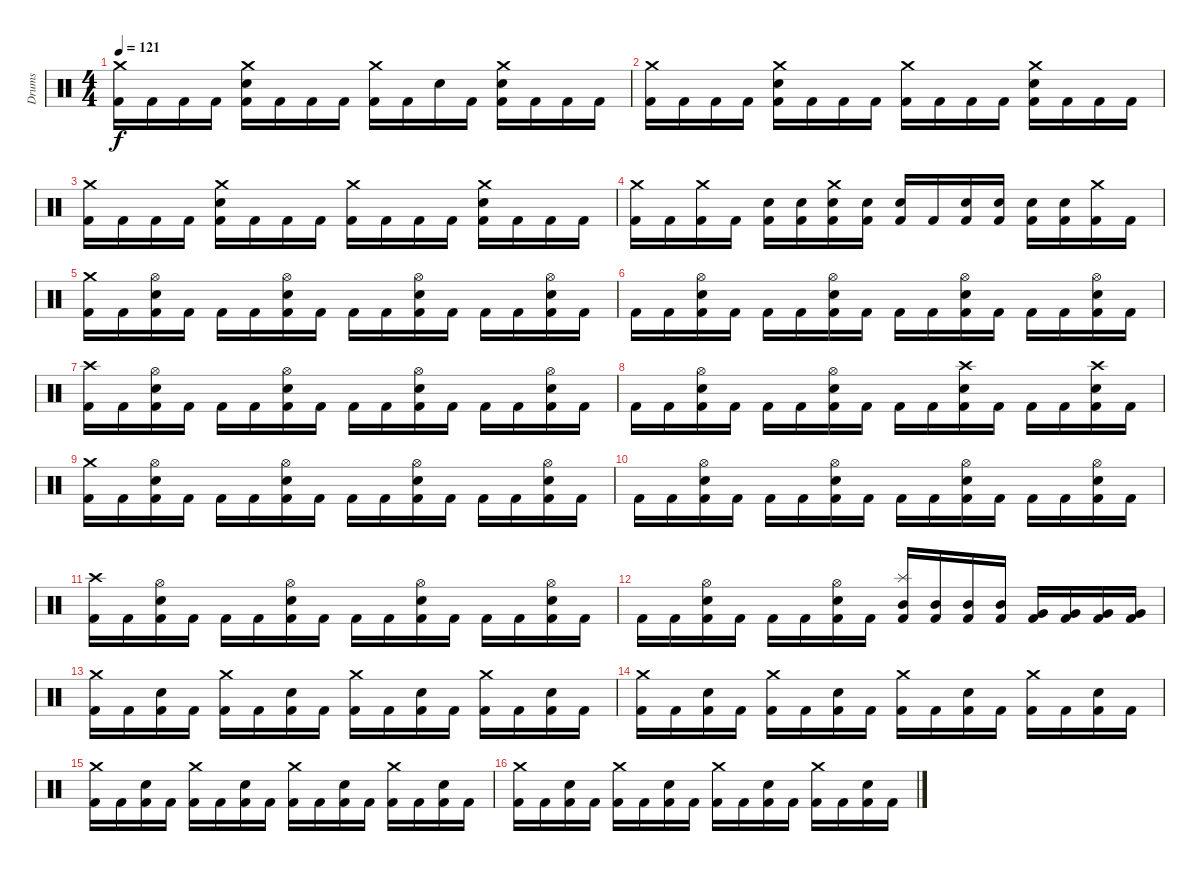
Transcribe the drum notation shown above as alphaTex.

\track ("Drums" "Drums") {instrument percussion}
\staff {score}
\articulation defaults
\ts (4 4)
\tempo 121
\clef neutral
\ks c
("Crash medium (hit)" "Kick (hit) 2").16{dy f} "Kick (hit) 2".16 "Kick (hit) 2".16 "Kick (hit) 2".16 ("Crash medium (hit)" "Electric Snare (hit)" "Kick (hit) 2").16 "Kick (hit) 2".16 "Kick (hit) 2".16 "Kick (hit) 2".16 ("Crash medium (hit)" "Kick (hit) 2").16 "Kick (hit) 2".16 "Snare (hit)".16 "Kick (hit) 2".16 ("Crash medium (hit)" "Electric Snare (hit)" "Kick (hit) 2").16 "Kick (hit) 2".16 "Kick (hit) 2".16 "Kick (hit) 2".16 |
("Crash medium (hit)" "Kick (hit) 2").16 "Kick (hit) 2".16 "Kick (hit) 2".16 "Kick (hit) 2".16 ("Crash medium (hit)" "Electric Snare (hit)" "Kick (hit) 2").16 "Kick (hit) 2".16 "Kick (hit) 2".16 "Kick (hit) 2".16 ("Crash medium (hit)" "Kick (hit) 2").16 "Kick (hit) 2".16 "Kick (hit) 2".16 "Kick (hit) 2".16 ("Crash medium (hit)" "Electric Snare (hit)" "Kick (hit) 2").16 "Kick (hit) 2".16 "Kick (hit) 2".16 "Kick (hit) 2".16 |
("Crash medium (hit)" "Kick (hit) 2").16 "Kick (hit) 2".16 "Kick (hit) 2".16 "Kick (hit) 2".16 ("Crash medium (hit)" "Electric Snare (hit)" "Kick (hit) 2").16 "Kick (hit) 2".16 "Kick (hit) 2".16 "Kick (hit) 2".16 ("Crash medium (hit)" "Kick (hit) 2").16 "Kick (hit) 2".16 "Kick (hit) 2".16 "Kick (hit) 2".16 ("Crash medium (hit)" "Electric Snare (hit)" "Kick (hit) 2").16 "Kick (hit) 2".16 "Kick (hit) 2".16 "Kick (hit) 2".16 |
("Crash medium (hit)" "Kick (hit) 2").16 "Kick (hit) 2".16 ("Crash medium (hit)" "Kick (hit) 2").16 "Kick (hit) 2".16 ("Electric Snare (hit)" "Kick (hit) 2").16 ("Electric Snare (hit)" "Kick (hit) 2").16 ("Crash medium (hit)" "Electric Snare (hit)" "Kick (hit) 2").16 ("Electric Snare (hit)" "Kick (hit) 2").16 ("Electric Snare (hit)" "Kick (hit) 2").16 "Kick (hit) 2".16 ("Electric Snare (hit)" "Kick (hit) 2").16 ("Electric Snare (hit)" "Kick (hit) 2").16 ("Electric Snare (hit)" "Kick (hit) 2").16 ("Electric Snare (hit)" "Kick (hit) 2").16 ("Crash medium (hit)" "Kick (hit) 2").16 "Kick (hit) 2".16 |
("Crash medium (hit)" "Kick (hit) 2").16 "Kick (hit) 2".16 ("Hi-Hat (open)" "Electric Snare (hit)" "Kick (hit) 2").16 "Kick (hit) 2".16 "Kick (hit) 2".16 "Kick (hit) 2".16 ("Hi-Hat (open)" "Electric Snare (hit)" "Kick (hit) 2").16 "Kick (hit) 2".16 "Kick (hit) 2".16 "Kick (hit) 2".16 ("Hi-Hat (open)" "Electric Snare (hit)" "Kick (hit) 2").16 "Kick (hit) 2".16 "Kick (hit) 2".16 "Kick (hit) 2".16 ("Hi-Hat (open)" "Electric Snare (hit)" "Kick (hit) 2").16 "Kick (hit) 2".16 |
"Kick (hit) 2".16 "Kick (hit) 2".16 ("Hi-Hat (open)" "Electric Snare (hit)" "Kick (hit) 2").16 "Kick (hit) 2".16 "Kick (hit) 2".16 "Kick (hit) 2".16 ("Hi-Hat (open)" "Electric Snare (hit)" "Kick (hit) 2").16 "Kick (hit) 2".16 "Kick (hit) 2".16 "Kick (hit) 2".16 ("Hi-Hat (open)" "Electric Snare (hit)" "Kick (hit) 2").16 "Kick (hit) 2".16 "Kick (hit) 2".16 "Kick (hit) 2".16 ("Hi-Hat (open)" "Electric Snare (hit)" "Kick (hit) 2").16 "Kick (hit) 2".16 |
("Crash high (hit)" "Kick (hit) 2").16 "Kick (hit) 2".16 ("Hi-Hat (open)" "Electric Snare (hit)" "Kick (hit) 2").16 "Kick (hit) 2".16 "Kick (hit) 2".16 "Kick (hit) 2".16 ("Hi-Hat (open)" "Electric Snare (hit)" "Kick (hit) 2").16 "Kick (hit) 2".16 "Kick (hit) 2".16 "Kick (hit) 2".16 ("Hi-Hat (open)" "Electric Snare (hit)" "Kick (hit) 2").16 "Kick (hit) 2".16 "Kick (hit) 2".16 "Kick (hit) 2".16 ("Hi-Hat (open)" "Electric Snare (hit)" "Kick (hit) 2").16 "Kick (hit) 2".16 |
"Kick (hit) 2".16 "Kick (hit) 2".16 ("Hi-Hat (open)" "Electric Snare (hit)" "Kick (hit) 2").16 "Kick (hit) 2".16 "Kick (hit) 2".16 "Kick (hit) 2".16 ("Hi-Hat (open)" "Electric Snare (hit)" "Kick (hit) 2").16 "Kick (hit) 2".16 "Kick (hit) 2".16 "Kick (hit) 2".16 ("Crash high (hit)" "Electric Snare (hit)" "Kick (hit) 2").16 "Kick (hit) 2".16 "Kick (hit) 2".16 "Kick (hit) 2".16 ("Crash high (hit)" "Electric Snare (hit)" "Kick (hit) 2").16 "Kick (hit) 2".16 |
("Crash medium (hit)" "Kick (hit) 2").16 "Kick (hit) 2".16 ("Hi-Hat (open)" "Electric Snare (hit)" "Kick (hit) 2").16 "Kick (hit) 2".16 "Kick (hit) 2".16 "Kick (hit) 2".16 ("Hi-Hat (open)" "Electric Snare (hit)" "Kick (hit) 2").16 "Kick (hit) 2".16 "Kick (hit) 2".16 "Kick (hit) 2".16 ("Hi-Hat (open)" "Electric Snare (hit)" "Kick (hit) 2").16 "Kick (hit) 2".16 "Kick (hit) 2".16 "Kick (hit) 2".16 ("Hi-Hat (open)" "Electric Snare (hit)" "Kick (hit) 2").16 "Kick (hit) 2".16 |
"Kick (hit) 2".16 "Kick (hit) 2".16 ("Hi-Hat (open)" "Electric Snare (hit)" "Kick (hit) 2").16 "Kick (hit) 2".16 "Kick (hit) 2".16 "Kick (hit) 2".16 ("Hi-Hat (open)" "Electric Snare (hit)" "Kick (hit) 2").16 "Kick (hit) 2".16 "Kick (hit) 2".16 "Kick (hit) 2".16 ("Hi-Hat (open)" "Electric Snare (hit)" "Kick (hit) 2").16 "Kick (hit) 2".16 "Kick (hit) 2".16 "Kick (hit) 2".16 ("Hi-Hat (open)" "Electric Snare (hit)" "Kick (hit) 2").16 "Kick (hit) 2".16 |
("Crash high (hit)" "Kick (hit) 2").16 "Kick (hit) 2".16 ("Hi-Hat (open)" "Electric Snare (hit)" "Kick (hit) 2").16 "Kick (hit) 2".16 "Kick (hit) 2".16 "Kick (hit) 2".16 ("Hi-Hat (open)" "Electric Snare (hit)" "Kick (hit) 2").16 "Kick (hit) 2".16 "Kick (hit) 2".16 "Kick (hit) 2".16 ("Hi-Hat (open)" "Electric Snare (hit)" "Kick (hit) 2").16 "Kick (hit) 2".16 "Kick (hit) 2".16 "Kick (hit) 2".16 ("Hi-Hat (open)" "Electric Snare (hit)" "Kick (hit) 2").16 "Kick (hit) 2".16 |
"Kick (hit) 2".16 "Kick (hit) 2".16 ("Hi-Hat (open)" "Electric Snare (hit)" "Kick (hit) 2").16 "Kick (hit) 2".16 "Kick (hit) 2".16 "Kick (hit) 2".16 ("Hi-Hat (open)" "Electric Snare (hit)" "Kick (hit) 2").16 "Kick (hit) 2".16 ("Splash (hit)" "Mid Tom (hit)" "Kick (hit) 2").16 ("Mid Tom (hit)" "Kick (hit) 2").16 ("Mid Tom (hit)" "Kick (hit) 2").16 ("Mid Tom (hit)" "Kick (hit) 2").16 ("Very Low Tom (hit)" "Kick (hit) 2").16 ("Very Low Tom (hit)" "Kick (hit) 2").16 ("Very Low Tom (hit)" "Kick (hit) 2").16 ("Very Low Tom (hit)" "Kick (hit) 2").16 |
("Crash medium (hit)" "Kick (hit) 2").16 "Kick (hit) 2".16 ("Electric Snare (hit)" "Kick (hit) 2").16 "Kick (hit) 2".16 ("Crash medium (hit)" "Kick (hit) 2").16 "Kick (hit) 2".16 ("Electric Snare (hit)" "Kick (hit) 2").16 "Kick (hit) 2".16 ("Crash medium (hit)" "Kick (hit) 2").16 "Kick (hit) 2".16 ("Electric Snare (hit)" "Kick (hit) 2").16 "Kick (hit) 2".16 ("Crash medium (hit)" "Kick (hit) 2").16 "Kick (hit) 2".16 ("Electric Snare (hit)" "Kick (hit) 2").16 "Kick (hit) 2".16 |
("Crash medium (hit)" "Kick (hit) 2").16 "Kick (hit) 2".16 ("Electric Snare (hit)" "Kick (hit) 2").16 "Kick (hit) 2".16 ("Crash medium (hit)" "Kick (hit) 2").16 "Kick (hit) 2".16 ("Electric Snare (hit)" "Kick (hit) 2").16 "Kick (hit) 2".16 ("Crash medium (hit)" "Kick (hit) 2").16 "Kick (hit) 2".16 ("Electric Snare (hit)" "Kick (hit) 2").16 "Kick (hit) 2".16 ("Crash medium (hit)" "Kick (hit) 2").16 "Kick (hit) 2".16 ("Electric Snare (hit)" "Kick (hit) 2").16 "Kick (hit) 2".16 |
("Crash medium (hit)" "Kick (hit) 2").16 "Kick (hit) 2".16 ("Electric Snare (hit)" "Kick (hit) 2").16 "Kick (hit) 2".16 ("Crash medium (hit)" "Kick (hit) 2").16 "Kick (hit) 2".16 ("Electric Snare (hit)" "Kick (hit) 2").16 "Kick (hit) 2".16 ("Crash medium (hit)" "Kick (hit) 2").16 "Kick (hit) 2".16 ("Electric Snare (hit)" "Kick (hit) 2").16 "Kick (hit) 2".16 ("Crash medium (hit)" "Kick (hit) 2").16 "Kick (hit) 2".16 ("Electric Snare (hit)" "Kick (hit) 2").16 "Kick (hit) 2".16 |
("Crash medium (hit)" "Kick (hit) 2").16 "Kick (hit) 2".16 ("Electric Snare (hit)" "Kick (hit) 2").16 "Kick (hit) 2".16 ("Crash medium (hit)" "Kick (hit) 2").16 "Kick (hit) 2".16 ("Electric Snare (hit)" "Kick (hit) 2").16 "Kick (hit) 2".16 ("Crash medium (hit)" "Kick (hit) 2").16 "Kick (hit) 2".16 ("Electric Snare (hit)" "Kick (hit) 2").16 "Kick (hit) 2".16 ("Crash medium (hit)" "Kick (hit) 2").16 "Kick (hit) 2".16 ("Electric Snare (hit)" "Kick (hit) 2").16 "Kick (hit) 2".16
